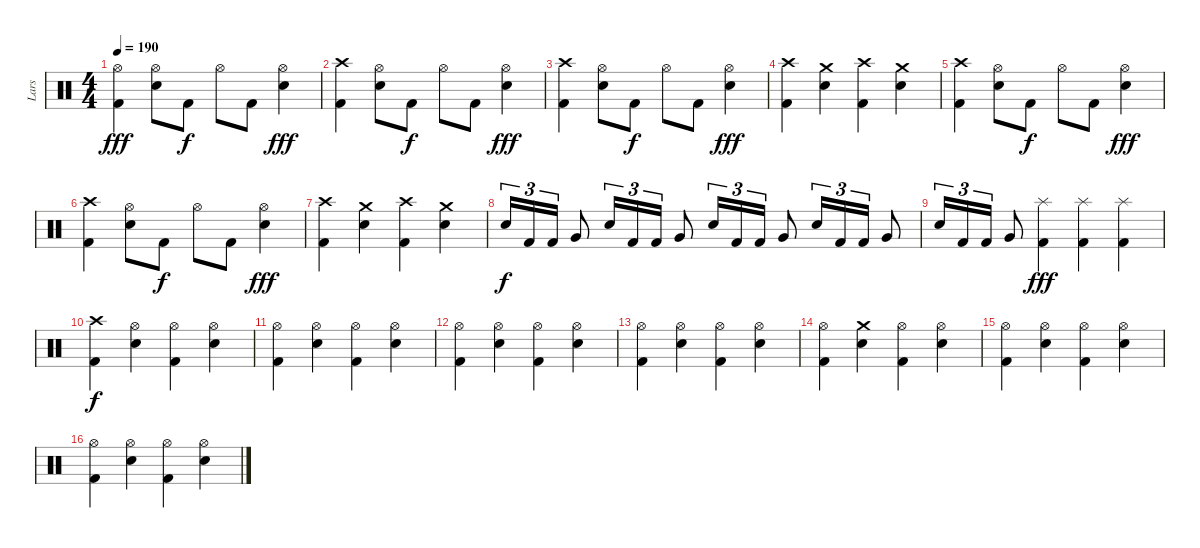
\track ("Lars" "Lars") {instrument percussion}
\staff {score}
\articulation defaults
\ts (4 4)
\tempo 190
\clef neutral
\ks c
("Hi-Hat (open)" "Kick (hit) 2").4{dy fff} ("Hi-Hat (open)" "Snare (hit) 2").8 "Kick (hit) 2".8{dy f} "Hi-Hat (open)".8 "Kick (hit) 2".8 ("Hi-Hat (open)" "Snare (hit) 2").4{dy fff} |
("Crash high (hit)" "Kick (hit) 2").4 ("Hi-Hat (open)" "Snare (hit) 2").8 "Kick (hit) 2".8{dy f} "Hi-Hat (open)".8 "Kick (hit) 2".8 ("Hi-Hat (open)" "Snare (hit) 2").4{dy fff} |
("Crash high (hit)" "Kick (hit) 2").4 ("Hi-Hat (open)" "Snare (hit) 2").8 "Kick (hit) 2".8{dy f} "Hi-Hat (open)".8 "Kick (hit) 2".8 ("Hi-Hat (open)" "Snare (hit) 2").4{dy fff} |
("Crash high (hit)" "Kick (hit) 2").4 ("Crash medium (hit)" "Snare (hit) 2").4 ("Crash high (hit)" "Kick (hit) 2").4 ("Crash medium (hit)" "Snare (hit) 2").4 |
("Crash high (hit)" "Kick (hit) 2").4 ("Hi-Hat (open)" "Snare (hit) 2").8 "Kick (hit) 2".8{dy f} "Hi-Hat (open)".8 "Kick (hit) 2".8 ("Hi-Hat (open)" "Snare (hit) 2").4{dy fff} |
("Crash high (hit)" "Kick (hit) 2").4 ("Hi-Hat (open)" "Snare (hit) 2").8 "Kick (hit) 2".8{dy f} "Hi-Hat (open)".8 "Kick (hit) 2".8 ("Hi-Hat (open)" "Snare (hit) 2").4{dy fff} |
("Crash high (hit)" "Kick (hit) 2").4 ("Crash medium (hit)" "Snare (hit) 2").4 ("Crash high (hit)" "Kick (hit) 2").4 ("Crash medium (hit)" "Snare (hit) 2").4 |
"Snare (hit) 2".16{tu (3 2) dy f} "Kick (hit) 2".16{tu (3 2)} "Kick (hit) 2".16{tu (3 2)} "Very Low Tom (hit)".8 "Snare (hit) 2".16{tu (3 2)} "Kick (hit) 2".16{tu (3 2)} "Kick (hit) 2".16{tu (3 2)} "Very Low Tom (hit)".8 "Snare (hit) 2".16{tu (3 2)} "Kick (hit) 2".16{tu (3 2)} "Kick (hit) 2".16{tu (3 2)} "Very Low Tom (hit)".8 "Snare (hit) 2".16{tu (3 2)} "Kick (hit) 2".16{tu (3 2)} "Kick (hit) 2".16{tu (3 2)} "Very Low Tom (hit)".8 |
"Snare (hit) 2".16{tu (3 2)} "Kick (hit) 2".16{tu (3 2)} "Kick (hit) 2".16{tu (3 2)} "Very Low Tom (hit)".8 ("Splash (hit)" "Kick (hit) 2").4{dy fff} ("Splash (hit)" "Kick (hit) 2").4 ("Splash (hit)" "Kick (hit) 2").4 |
("Crash high (hit)" "Kick (hit) 2").4{dy f} ("Hi-Hat (open)" "Snare (hit) 2").4 ("Hi-Hat (open)" "Kick (hit) 2").4 ("Hi-Hat (open)" "Snare (hit) 2").4 |
("Hi-Hat (open)" "Kick (hit) 2").4 ("Hi-Hat (open)" "Snare (hit) 2").4 ("Hi-Hat (open)" "Kick (hit) 2").4 ("Hi-Hat (open)" "Snare (hit) 2").4 |
("Hi-Hat (open)" "Kick (hit) 2").4 ("Hi-Hat (open)" "Snare (hit) 2").4 ("Hi-Hat (open)" "Kick (hit) 2").4 ("Hi-Hat (open)" "Snare (hit) 2").4 |
("Hi-Hat (open)" "Kick (hit) 2").4 ("Hi-Hat (open)" "Snare (hit) 2").4 ("Hi-Hat (open)" "Kick (hit) 2").4 ("Hi-Hat (open)" "Snare (hit) 2").4 |
("Hi-Hat (open)" "Kick (hit) 2").4 ("Crash medium (hit)" "Snare (hit) 2").4 ("Hi-Hat (open)" "Kick (hit) 2").4 ("Hi-Hat (open)" "Snare (hit) 2").4 |
("Hi-Hat (open)" "Kick (hit) 2").4 ("Hi-Hat (open)" "Snare (hit) 2").4 ("Hi-Hat (open)" "Kick (hit) 2").4 ("Hi-Hat (open)" "Snare (hit) 2").4 |
("Hi-Hat (open)" "Kick (hit) 2").4 ("Hi-Hat (open)" "Snare (hit) 2").4 ("Hi-Hat (open)" "Kick (hit) 2").4 ("Hi-Hat (open)" "Snare (hit) 2").4
